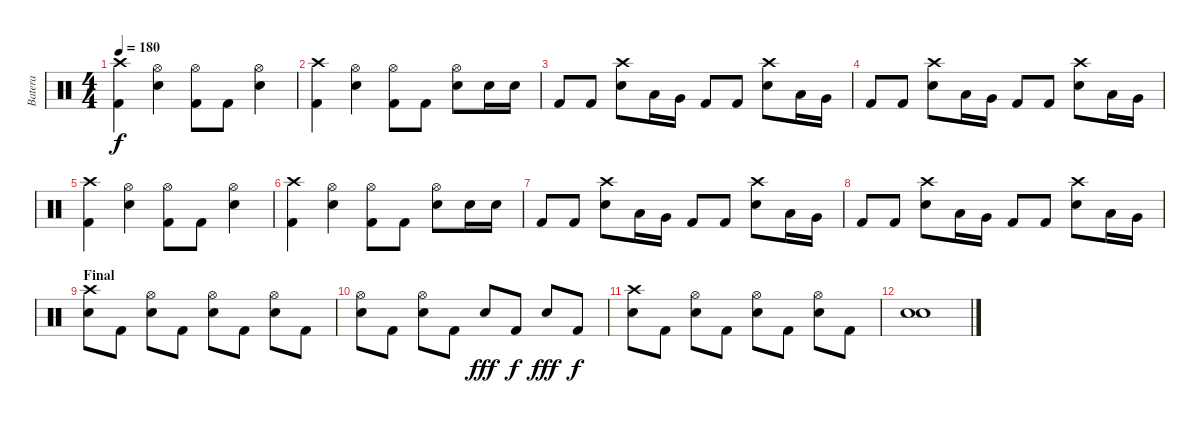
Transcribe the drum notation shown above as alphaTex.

\track ("Batera" "Batera") {instrument percussion}
\staff {score}
\articulation defaults
\ts (4 4)
\tempo 180
\clef neutral
\ks c
("Crash high (hit)" "Kick (hit) 2").4{dy f} ("Hi-Hat (open)" "Snare (hit) 2").4 ("Hi-Hat (open)" "Kick (hit) 2").8 "Kick (hit) 2".8 ("Hi-Hat (open)" "Snare (hit) 2").4 |
("Crash high (hit)" "Kick (hit) 2").4 ("Hi-Hat (open)" "Snare (hit) 2").4 ("Hi-Hat (open)" "Kick (hit) 2").8 "Kick (hit) 2".8 ("Hi-Hat (open)" "Snare (hit) 2").8 "Snare (hit) 2".16 "Snare (hit) 2".16 |
"Kick (hit) 2".8 "Kick (hit) 2".8 ("Crash high (hit)" "Snare (hit) 2").8 "Low Tom (hit)".16 "Very Low Tom (hit)".16 "Kick (hit) 2".8 "Kick (hit) 2".8 ("Crash high (hit)" "Snare (hit) 2").8 "Low Tom (hit)".16 "Very Low Tom (hit)".16 |
"Kick (hit) 2".8 "Kick (hit) 2".8 ("Crash high (hit)" "Snare (hit) 2").8 "Low Tom (hit)".16 "Very Low Tom (hit)".16 "Kick (hit) 2".8 "Kick (hit) 2".8 ("Crash high (hit)" "Snare (hit) 2").8 "Low Tom (hit)".16 "Very Low Tom (hit)".16 |
("Crash high (hit)" "Kick (hit) 2").4 ("Hi-Hat (open)" "Snare (hit) 2").4 ("Hi-Hat (open)" "Kick (hit) 2").8 "Kick (hit) 2".8 ("Hi-Hat (open)" "Snare (hit) 2").4 |
("Crash high (hit)" "Kick (hit) 2").4 ("Hi-Hat (open)" "Snare (hit) 2").4 ("Hi-Hat (open)" "Kick (hit) 2").8 "Kick (hit) 2".8 ("Hi-Hat (open)" "Snare (hit) 2").8 "Snare (hit) 2".16 "Snare (hit) 2".16 |
"Kick (hit) 2".8 "Kick (hit) 2".8 ("Crash high (hit)" "Snare (hit) 2").8 "Low Tom (hit)".16 "Very Low Tom (hit)".16 "Kick (hit) 2".8 "Kick (hit) 2".8 ("Crash high (hit)" "Snare (hit) 2").8 "Low Tom (hit)".16 "Very Low Tom (hit)".16 |
"Kick (hit) 2".8 "Kick (hit) 2".8 ("Crash high (hit)" "Snare (hit) 2").8 "Low Tom (hit)".16 "Very Low Tom (hit)".16 "Kick (hit) 2".8 "Kick (hit) 2".8 ("Crash high (hit)" "Snare (hit) 2").8 "Low Tom (hit)".16 "Very Low Tom (hit)".16 |
\section ("" "Final")
("Crash high (hit)" "Snare (hit) 2").8 "Kick (hit) 2".8 ("Hi-Hat (open)" "Snare (hit) 2").8 "Kick (hit) 2".8 ("Hi-Hat (open)" "Snare (hit) 2").8 "Kick (hit) 2".8 ("Hi-Hat (open)" "Snare (hit) 2").8 "Kick (hit) 2".8 |
("Hi-Hat (open)" "Snare (hit) 2").8 "Kick (hit) 2".8 ("Hi-Hat (open)" "Snare (hit) 2").8 "Kick (hit) 2".8 "Snare (hit) 2".8{dy fff} "Kick (hit) 2".8{dy f} "Snare (hit) 2".8{dy fff} "Kick (hit) 2".8{dy f} |
("Crash high (hit)" "Snare (hit) 2").8 "Kick (hit) 2".8 ("Hi-Hat (open)" "Snare (hit) 2").8 "Kick (hit) 2".8 ("Hi-Hat (open)" "Snare (hit) 2").8 "Kick (hit) 2".8 ("Hi-Hat (open)" "Snare (hit) 2").8 "Kick (hit) 2".8 |
("Snare (hit) 2" "Snare (hit) 2").1
